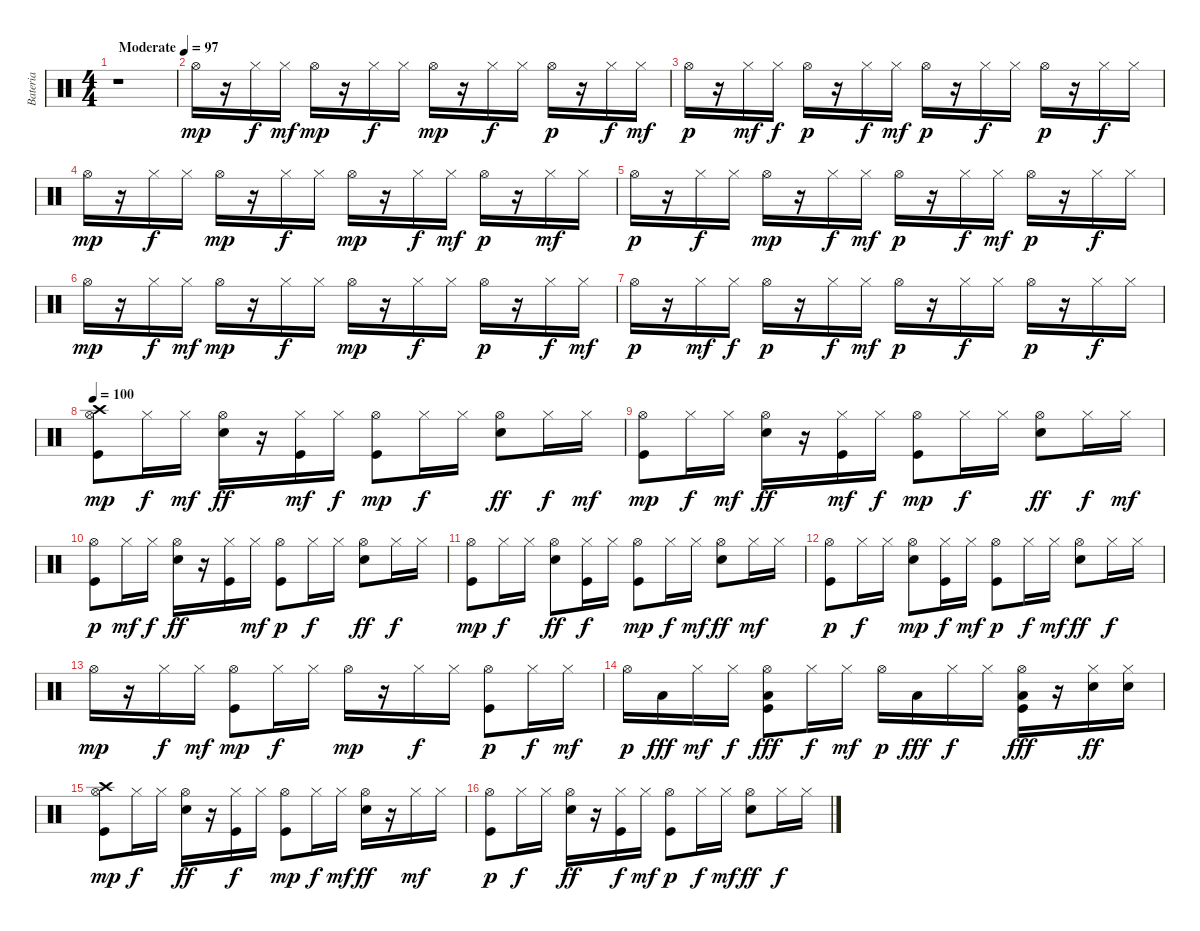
\track ("Bateria" "Bateria") {solo instrument percussion}
\staff {score}
\articulation defaults
\ts (4 4)
\tempo (97 "Moderate")
\clef neutral
\ks c
r.1{dy mp} |
"Hi-Hat (open)".16 r.16 "Hi-Hat (closed)".16{dy f} "Hi-Hat (closed)".16{dy mf} "Hi-Hat (open)".16{dy mp} r.16 "Hi-Hat (closed)".16{dy f} "Hi-Hat (closed)".16 "Hi-Hat (open)".16{dy mp} r.16 "Hi-Hat (closed)".16{dy f} "Hi-Hat (closed)".16 "Hi-Hat (open)".16{dy p} r.16 "Hi-Hat (closed)".16{dy f} "Hi-Hat (closed)".16{dy mf} |
"Hi-Hat (open)".16{dy p} r.16 "Hi-Hat (closed)".16{dy mf} "Hi-Hat (closed)".16{dy f} "Hi-Hat (open)".16{dy p} r.16 "Hi-Hat (closed)".16{dy f} "Hi-Hat (closed)".16{dy mf} "Hi-Hat (open)".16{dy p} r.16 "Hi-Hat (closed)".16{dy f} "Hi-Hat (closed)".16 "Hi-Hat (open)".16{dy p} r.16 "Hi-Hat (closed)".16{dy f} "Hi-Hat (closed)".16 |
"Hi-Hat (open)".16{dy mp} r.16 "Hi-Hat (closed)".16{dy f} "Hi-Hat (closed)".16 "Hi-Hat (open)".16{dy mp} r.16 "Hi-Hat (closed)".16{dy f} "Hi-Hat (closed)".16 "Hi-Hat (open)".16{dy mp} r.16 "Hi-Hat (closed)".16{dy f} "Hi-Hat (closed)".16{dy mf} "Hi-Hat (open)".16{dy p} r.16 "Hi-Hat (closed)".16{dy mf} "Hi-Hat (closed)".16 |
"Hi-Hat (open)".16{dy p} r.16 "Hi-Hat (closed)".16{dy f} "Hi-Hat (closed)".16 "Hi-Hat (open)".16{dy mp} r.16 "Hi-Hat (closed)".16{dy f} "Hi-Hat (closed)".16{dy mf} "Hi-Hat (open)".16{dy p} r.16 "Hi-Hat (closed)".16{dy f} "Hi-Hat (closed)".16{dy mf} "Hi-Hat (open)".16{dy p} r.16 "Hi-Hat (closed)".16{dy f} "Hi-Hat (closed)".16 |
"Hi-Hat (open)".16{dy mp} r.16 "Hi-Hat (closed)".16{dy f} "Hi-Hat (closed)".16{dy mf} "Hi-Hat (open)".16{dy mp} r.16 "Hi-Hat (closed)".16{dy f} "Hi-Hat (closed)".16 "Hi-Hat (open)".16{dy mp} r.16 "Hi-Hat (closed)".16{dy f} "Hi-Hat (closed)".16 "Hi-Hat (open)".16{dy p} r.16 "Hi-Hat (closed)".16{dy f} "Hi-Hat (closed)".16{dy mf} |
"Hi-Hat (open)".16{dy p} r.16 "Hi-Hat (closed)".16{dy mf} "Hi-Hat (closed)".16{dy f} "Hi-Hat (open)".16{dy p} r.16 "Hi-Hat (closed)".16{dy f} "Hi-Hat (closed)".16{dy mf} "Hi-Hat (open)".16{dy p} r.16 "Hi-Hat (closed)".16{dy f} "Hi-Hat (closed)".16 "Hi-Hat (open)".16{dy p} r.16 "Hi-Hat (closed)".16{dy f} "Hi-Hat (closed)".16 |
\tempo 100
("Kick (hit)" "Crash high (hit)" "Hi-Hat (open)").8{dy mp} "Hi-Hat (closed)".16{dy f} "Hi-Hat (closed)".16{dy mf} ("Hi-Hat (open)" "Snare (hit) 2").16{dy ff} r.16 ("Kick (hit)" "Hi-Hat (closed)").16{dy mf} "Hi-Hat (closed)".16{dy f} ("Kick (hit)" "Hi-Hat (open)").8{dy mp} "Hi-Hat (closed)".16{dy f} "Hi-Hat (closed)".16 ("Hi-Hat (open)" "Snare (hit) 2").8{dy ff} "Hi-Hat (closed)".16{dy f} "Hi-Hat (closed)".16{dy mf} |
("Kick (hit)" "Hi-Hat (open)").8{dy mp} "Hi-Hat (closed)".16{dy f} "Hi-Hat (closed)".16{dy mf} ("Hi-Hat (open)" "Snare (hit) 2").16{dy ff} r.16 ("Kick (hit)" "Hi-Hat (closed)").16{dy mf} "Hi-Hat (closed)".16{dy f} ("Kick (hit)" "Hi-Hat (open)").8{dy mp} "Hi-Hat (closed)".16{dy f} "Hi-Hat (closed)".16 ("Hi-Hat (open)" "Snare (hit) 2").8{dy ff} "Hi-Hat (closed)".16{dy f} "Hi-Hat (closed)".16{dy mf} |
("Kick (hit)" "Hi-Hat (open)").8{dy p} "Hi-Hat (closed)".16{dy mf} "Hi-Hat (closed)".16{dy f} ("Hi-Hat (open)" "Snare (hit) 2").16{dy ff} r.16 ("Kick (hit)" "Hi-Hat (closed)").16 "Hi-Hat (closed)".16{dy mf} ("Kick (hit)" "Hi-Hat (open)").8{dy p} "Hi-Hat (closed)".16{dy f} "Hi-Hat (closed)".16 ("Hi-Hat (open)" "Snare (hit) 2").8{dy ff} "Hi-Hat (closed)".16{dy f} "Hi-Hat (closed)".16 |
("Kick (hit)" "Hi-Hat (open)").8{dy mp} "Hi-Hat (closed)".16{dy f} "Hi-Hat (closed)".16 ("Hi-Hat (open)" "Snare (hit) 2").8{dy ff} ("Kick (hit)" "Hi-Hat (closed)").16{dy f} "Hi-Hat (closed)".16 ("Kick (hit)" "Hi-Hat (open)").8{dy mp} "Hi-Hat (closed)".16{dy f} "Hi-Hat (closed)".16{dy mf} ("Hi-Hat (open)" "Snare (hit) 2").8{dy ff} "Hi-Hat (closed)".16{dy mf} "Hi-Hat (closed)".16 |
("Kick (hit)" "Hi-Hat (open)").8{dy p} "Hi-Hat (closed)".16{dy f} "Hi-Hat (closed)".16 ("Hi-Hat (open)" "Snare (hit) 2").8{dy mp} ("Kick (hit)" "Hi-Hat (closed)").16{dy f} "Hi-Hat (closed)".16{dy mf} ("Kick (hit)" "Hi-Hat (open)").8{dy p} "Hi-Hat (closed)".16{dy f} "Hi-Hat (closed)".16{dy mf} ("Hi-Hat (open)" "Snare (hit) 2").8{dy ff} "Hi-Hat (closed)".16{dy f} "Hi-Hat (closed)".16 |
"Hi-Hat (open)".16{dy mp} r.16 "Hi-Hat (closed)".16{dy f} "Hi-Hat (closed)".16{dy mf} ("Kick (hit)" "Hi-Hat (open)").8{dy mp} "Hi-Hat (closed)".16{dy f} "Hi-Hat (closed)".16 "Hi-Hat (open)".16{dy mp} r.16 "Hi-Hat (closed)".16{dy f} "Hi-Hat (closed)".16 ("Kick (hit)" "Hi-Hat (open)").8{dy p} "Hi-Hat (closed)".16{dy f} "Hi-Hat (closed)".16{dy mf} |
"Hi-Hat (open)".16{dy p} "Low Tom (hit)".16{dy fff} "Hi-Hat (closed)".16{dy mf} "Hi-Hat (closed)".16{dy f} ("Kick (hit)" "Hi-Hat (open)" "Low Floor Tom (hit)").8{dy fff} "Hi-Hat (closed)".16{dy f} "Hi-Hat (closed)".16{dy mf} "Hi-Hat (open)".16{dy p} "Low Tom (hit)".16{dy fff} "Hi-Hat (closed)".16{dy f} "Hi-Hat (closed)".16 ("Kick (hit)" "Hi-Hat (open)" "Low Floor Tom (hit)").16{dy fff} r.16 ("Snare (hit) 2" "Hi-Hat (closed)").16{dy ff} ("Snare (hit) 2" "Hi-Hat (closed)").16 |
("Kick (hit)" "Crash high (hit)" "Hi-Hat (open)").8{dy mp} "Hi-Hat (closed)".16{dy f} "Hi-Hat (closed)".16 ("Hi-Hat (open)" "Snare (hit) 2").16{dy ff} r.16 ("Kick (hit)" "Hi-Hat (closed)").16{dy f} "Hi-Hat (closed)".16 ("Kick (hit)" "Hi-Hat (open)").8{dy mp} "Hi-Hat (closed)".16{dy f} "Hi-Hat (closed)".16{dy mf} ("Hi-Hat (open)" "Snare (hit) 2").16{dy ff} r.16 "Hi-Hat (closed)".16{dy mf} "Hi-Hat (closed)".16 |
("Kick (hit)" "Hi-Hat (open)").8{dy p} "Hi-Hat (closed)".16{dy f} "Hi-Hat (closed)".16 ("Hi-Hat (open)" "Snare (hit) 2").16{dy ff} r.16 ("Kick (hit)" "Hi-Hat (closed)").16{dy f} "Hi-Hat (closed)".16{dy mf} ("Kick (hit)" "Hi-Hat (open)").8{dy p} "Hi-Hat (closed)".16{dy f} "Hi-Hat (closed)".16{dy mf} ("Hi-Hat (open)" "Snare (hit) 2").8{dy ff} "Hi-Hat (closed)".16{dy f} "Hi-Hat (closed)".16
